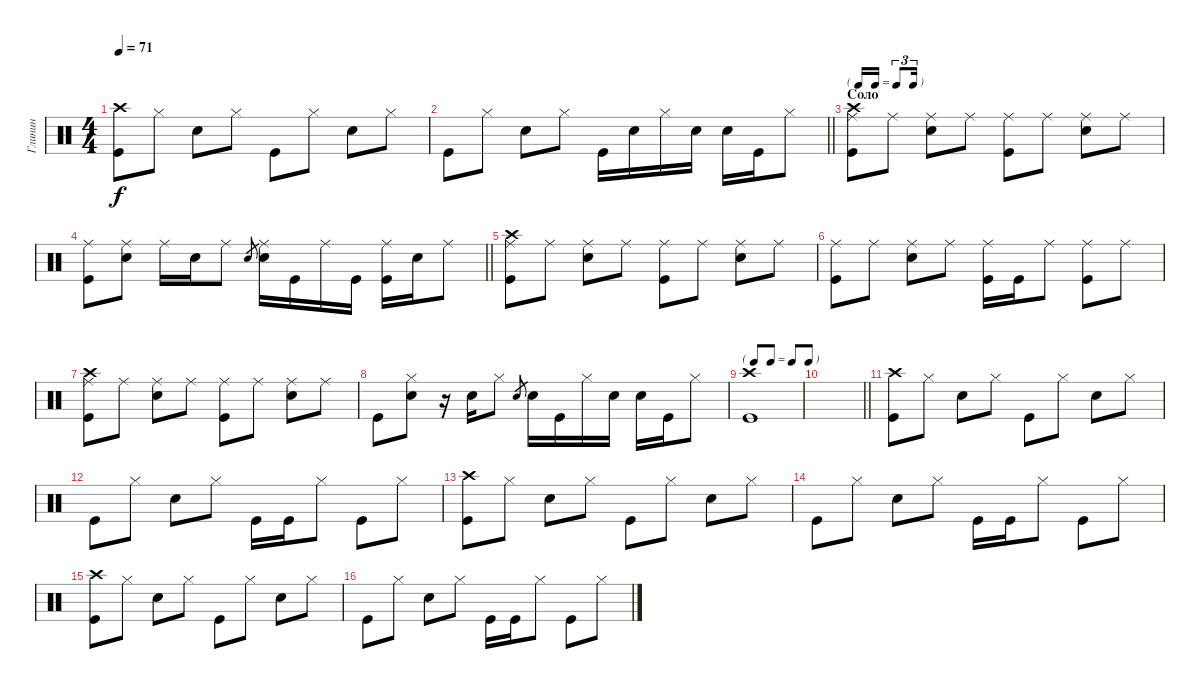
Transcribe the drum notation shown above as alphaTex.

\track ("Глинин" "Глинин") {instrument percussion}
\staff {score}
\articulation defaults
\ts (4 4)
\tempo 71
\clef neutral
\ks c
("Kick (hit)" "Crash high (hit)").8{dy f} "Hi-Hat (closed)".8 "Snare (hit) 2".8 "Hi-Hat (closed)".8 "Kick (hit)".8 "Hi-Hat (closed)".8 "Snare (hit) 2".8 "Hi-Hat (closed)".8 |
\barLineRight lightlight "Kick (hit)".8 "Hi-Hat (closed)".8 "Snare (hit) 2".8 "Hi-Hat (closed)".8 "Kick (hit)".16 "Snare (hit) 2".16 "Hi-Hat (closed)".16 "Snare (hit) 2".16 "Snare (hit) 2".16 "Kick (hit)".16 "Hi-Hat (closed)".8
|
\tf triplet16th
\section ("" "Соло")
("Ride (middle)" "Kick (hit)" "Crash high (hit)").8 "Ride (middle)".8 ("Ride (middle)" "Snare (hit) 2").8 "Ride (middle)".8 ("Ride (middle)" "Kick (hit)").8 "Ride (middle)".8 ("Ride (middle)" "Snare (hit) 2").8 "Ride (middle)".8 |
\barLineRight lightlight
("Ride (middle)" "Kick (hit)").8 ("Ride (middle)" "Snare (hit) 2").8 "Ride (middle)".16 "Snare (hit) 2".16 "Ride (middle)".8 "Snare (hit) 2".8{gr} ("Ride (middle)" "Snare (hit) 2").16 "Kick (hit)".16 "Ride (middle)".16 "Kick (hit)".16 ("Ride (middle)" "Kick (hit)").16 "Snare (hit) 2".16 "Ride (middle)".8 |
("Ride (middle)" "Kick (hit)" "Crash high (hit)").8 "Ride (middle)".8 ("Ride (middle)" "Snare (hit) 2").8 "Ride (middle)".8 ("Ride (middle)" "Kick (hit)").8 "Ride (middle)".8 ("Ride (middle)" "Snare (hit) 2").8 "Ride (middle)".8 |
("Ride (middle)" "Kick (hit)").8 "Ride (middle)".8 ("Ride (middle)" "Snare (hit) 2").8 "Ride (middle)".8 ("Ride (middle)" "Kick (hit)").16 "Kick (hit)".16 "Ride (middle)".8 ("Ride (middle)" "Kick (hit)").8 "Ride (middle)".8 |
("Ride (middle)" "Kick (hit)" "Crash high (hit)").8 "Ride (middle)".8 ("Ride (middle)" "Snare (hit) 2").8 "Ride (middle)".8 ("Ride (middle)" "Kick (hit)").8 "Ride (middle)".8 ("Ride (middle)" "Snare (hit) 2").8 "Ride (middle)".8 |
"Kick (hit)".8 ("Hi-Hat (closed)" "Snare (hit) 2").8 r.16 "Snare (hit) 2".16 "Hi-Hat (closed)".8 "Snare (hit) 2".8{gr} "Snare (hit) 2".16 "Kick (hit)".16 "Hi-Hat (closed)".16 "Snare (hit) 2".16 "Snare (hit) 2".16 "Kick (hit)".16 "Hi-Hat (closed)".8 |
\tf none
("Crash high (hit)" "Kick (hit)").1 |
\barLineRight lightlight
|
("Kick (hit)" "Crash high (hit)").8 "Hi-Hat (closed)".8 "Snare (hit) 2".8 "Hi-Hat (closed)".8 "Kick (hit)".8 "Hi-Hat (closed)".8 "Snare (hit) 2".8 "Hi-Hat (closed)".8 |
"Kick (hit)".8 "Hi-Hat (closed)".8 "Snare (hit) 2".8 "Hi-Hat (closed)".8 "Kick (hit)".16 "Kick (hit)".16 "Hi-Hat (closed)".8 "Kick (hit)".8 "Hi-Hat (closed)".8 |
("Kick (hit)" "Crash high (hit)").8 "Hi-Hat (closed)".8 "Snare (hit) 2".8 "Hi-Hat (closed)".8 "Kick (hit)".8 "Hi-Hat (closed)".8 "Snare (hit) 2".8 "Hi-Hat (closed)".8 |
"Kick (hit)".8 "Hi-Hat (closed)".8 "Snare (hit) 2".8 "Hi-Hat (closed)".8 "Kick (hit)".16 "Kick (hit)".16 "Hi-Hat (closed)".8 "Kick (hit)".8 "Hi-Hat (closed)".8 |
("Kick (hit)" "Crash high (hit)").8 "Hi-Hat (closed)".8 "Snare (hit) 2".8 "Hi-Hat (closed)".8 "Kick (hit)".8 "Hi-Hat (closed)".8 "Snare (hit) 2".8 "Hi-Hat (closed)".8 |
"Kick (hit)".8 "Hi-Hat (closed)".8 "Snare (hit) 2".8 "Hi-Hat (closed)".8 "Kick (hit)".16 "Kick (hit)".16 "Hi-Hat (closed)".8 "Kick (hit)".8 "Hi-Hat (closed)".8
